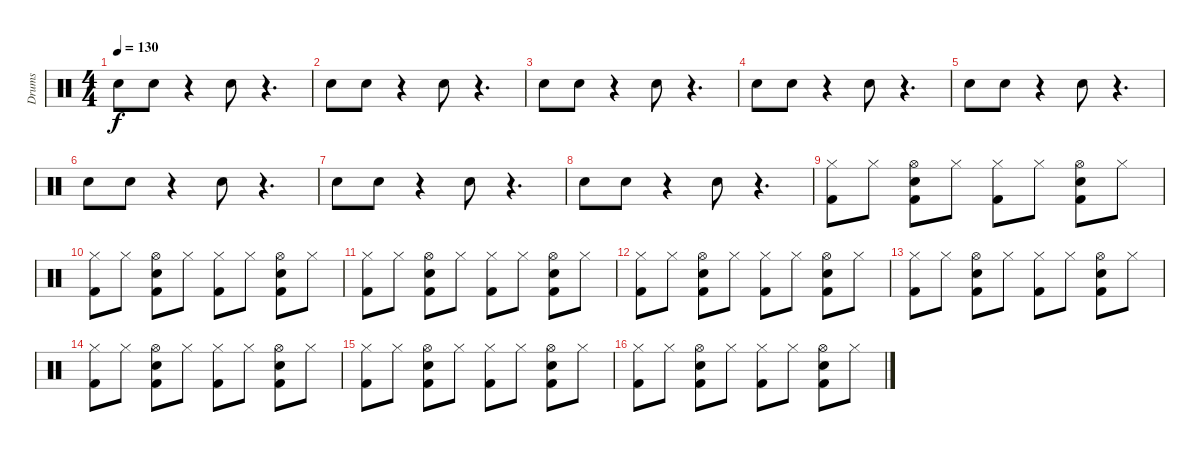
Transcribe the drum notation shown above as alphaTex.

\track ("Drums" "Drums") {instrument percussion}
\staff {score}
\articulation defaults
\ts (4 4)
\tempo 130
\clef neutral
\ks c "Electric Snare (hit)".8{dy f} "Electric Snare (hit)".8
r.4 "Electric Snare (hit)".8 r.4{d} |
"Electric Snare (hit)".8 "Electric Snare (hit)".8 r.4 "Electric Snare (hit)".8 r.4{d} |
"Electric Snare (hit)".8 "Electric Snare (hit)".8 r.4 "Electric Snare (hit)".8 r.4{d} |
"Electric Snare (hit)".8 "Electric Snare (hit)".8 r.4 "Electric Snare (hit)".8 r.4{d} |
"Electric Snare (hit)".8 "Electric Snare (hit)".8 r.4 "Electric Snare (hit)".8 r.4{d} |
"Electric Snare (hit)".8 "Electric Snare (hit)".8 r.4 "Electric Snare (hit)".8 r.4{d} |
"Electric Snare (hit)".8 "Electric Snare (hit)".8 r.4 "Electric Snare (hit)".8 r.4{d} |
"Electric Snare (hit)".8 "Electric Snare (hit)".8 r.4 "Electric Snare (hit)".8 r.4{d} |
("Hi-Hat (closed)" "Kick (hit) 2").8 "Hi-Hat (closed)".8 ("Hi-Hat (open)" "Electric Snare (hit)" "Kick (hit) 2").8 "Hi-Hat (closed)".8 ("Hi-Hat (closed)" "Kick (hit) 2").8 "Hi-Hat (closed)".8 ("Hi-Hat (open)" "Electric Snare (hit)" "Kick (hit) 2").8 "Hi-Hat (closed)".8 |
("Hi-Hat (closed)" "Kick (hit) 2").8 "Hi-Hat (closed)".8 ("Hi-Hat (open)" "Electric Snare (hit)" "Kick (hit) 2").8 "Hi-Hat (closed)".8 ("Hi-Hat (closed)" "Kick (hit) 2").8 "Hi-Hat (closed)".8 ("Hi-Hat (open)" "Electric Snare (hit)" "Kick (hit) 2").8 "Hi-Hat (closed)".8 |
("Hi-Hat (closed)" "Kick (hit) 2").8 "Hi-Hat (closed)".8 ("Hi-Hat (open)" "Electric Snare (hit)" "Kick (hit) 2").8 "Hi-Hat (closed)".8 ("Hi-Hat (closed)" "Kick (hit) 2").8 "Hi-Hat (closed)".8 ("Hi-Hat (open)" "Electric Snare (hit)" "Kick (hit) 2").8 "Hi-Hat (closed)".8 |
("Hi-Hat (closed)" "Kick (hit) 2").8 "Hi-Hat (closed)".8 ("Hi-Hat (open)" "Electric Snare (hit)" "Kick (hit) 2").8 "Hi-Hat (closed)".8 ("Hi-Hat (closed)" "Kick (hit) 2").8 "Hi-Hat (closed)".8 ("Hi-Hat (open)" "Electric Snare (hit)" "Kick (hit) 2").8 "Hi-Hat (closed)".8 |
("Hi-Hat (closed)" "Kick (hit) 2").8 "Hi-Hat (closed)".8 ("Hi-Hat (open)" "Electric Snare (hit)" "Kick (hit) 2").8 "Hi-Hat (closed)".8 ("Hi-Hat (closed)" "Kick (hit) 2").8 "Hi-Hat (closed)".8 ("Hi-Hat (open)" "Electric Snare (hit)" "Kick (hit) 2").8 "Hi-Hat (closed)".8 |
("Hi-Hat (closed)" "Kick (hit) 2").8 "Hi-Hat (closed)".8 ("Hi-Hat (open)" "Electric Snare (hit)" "Kick (hit) 2").8 "Hi-Hat (closed)".8 ("Hi-Hat (closed)" "Kick (hit) 2").8 "Hi-Hat (closed)".8 ("Hi-Hat (open)" "Electric Snare (hit)" "Kick (hit) 2").8 "Hi-Hat (closed)".8 |
("Hi-Hat (closed)" "Kick (hit) 2").8 "Hi-Hat (closed)".8 ("Hi-Hat (open)" "Electric Snare (hit)" "Kick (hit) 2").8 "Hi-Hat (closed)".8 ("Hi-Hat (closed)" "Kick (hit) 2").8 "Hi-Hat (closed)".8 ("Hi-Hat (open)" "Electric Snare (hit)" "Kick (hit) 2").8 "Hi-Hat (closed)".8 |
("Hi-Hat (closed)" "Kick (hit) 2").8 "Hi-Hat (closed)".8 ("Hi-Hat (open)" "Electric Snare (hit)" "Kick (hit) 2").8 "Hi-Hat (closed)".8 ("Hi-Hat (closed)" "Kick (hit) 2").8 "Hi-Hat (closed)".8 ("Hi-Hat (open)" "Electric Snare (hit)" "Kick (hit) 2").8 "Hi-Hat (closed)".8
